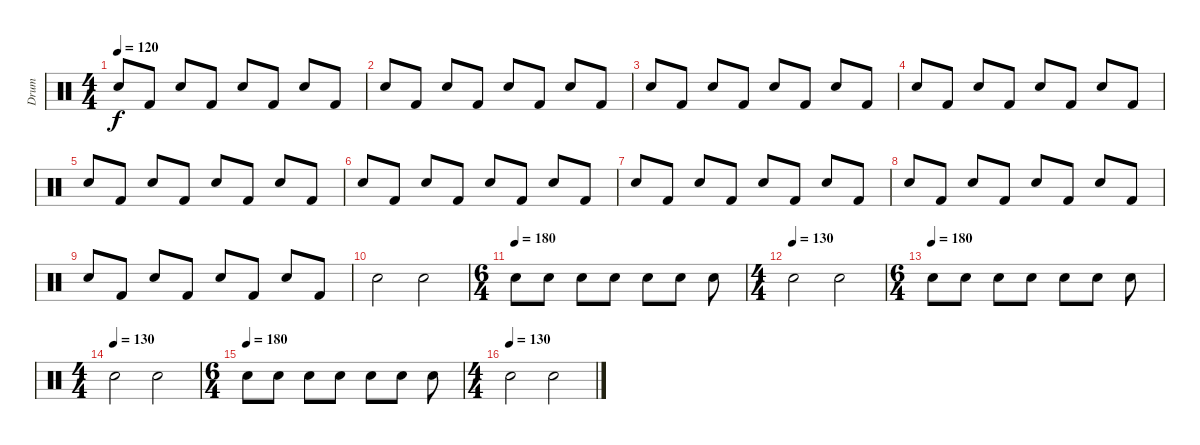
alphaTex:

\track ("Drum" "Drum") {instrument percussion}
\staff {score}
\articulation defaults
\ts (4 4)
\tempo 120
\clef neutral
\ks c "Snare (hit) 2".8{dy f} "Kick (hit) 2".8 "Snare (hit) 2".8 "Kick (hit) 2".8 "Snare (hit) 2".8 "Kick (hit) 2".8 "Snare (hit) 2".8 "Kick (hit) 2".8
|
"Snare (hit) 2".8 "Kick (hit) 2".8 "Snare (hit) 2".8 "Kick (hit) 2".8 "Snare (hit) 2".8 "Kick (hit) 2".8 "Snare (hit) 2".8 "Kick (hit) 2".8 |
"Snare (hit) 2".8 "Kick (hit) 2".8 "Snare (hit) 2".8 "Kick (hit) 2".8 "Snare (hit) 2".8 "Kick (hit) 2".8 "Snare (hit) 2".8 "Kick (hit) 2".8 |
"Snare (hit) 2".8 "Kick (hit) 2".8 "Snare (hit) 2".8 "Kick (hit) 2".8 "Snare (hit) 2".8 "Kick (hit) 2".8 "Snare (hit) 2".8 "Kick (hit) 2".8 |
"Snare (hit) 2".8 "Kick (hit) 2".8 "Snare (hit) 2".8 "Kick (hit) 2".8 "Snare (hit) 2".8 "Kick (hit) 2".8 "Snare (hit) 2".8 "Kick (hit) 2".8 |
"Snare (hit) 2".8 "Kick (hit) 2".8 "Snare (hit) 2".8 "Kick (hit) 2".8 "Snare (hit) 2".8 "Kick (hit) 2".8 "Snare (hit) 2".8 "Kick (hit) 2".8 |
"Snare (hit) 2".8 "Kick (hit) 2".8 "Snare (hit) 2".8 "Kick (hit) 2".8 "Snare (hit) 2".8 "Kick (hit) 2".8 "Snare (hit) 2".8 "Kick (hit) 2".8 |
"Snare (hit) 2".8 "Kick (hit) 2".8 "Snare (hit) 2".8 "Kick (hit) 2".8 "Snare (hit) 2".8 "Kick (hit) 2".8 "Snare (hit) 2".8 "Kick (hit) 2".8 |
"Snare (hit) 2".8 "Kick (hit) 2".8 "Snare (hit) 2".8 "Kick (hit) 2".8 "Snare (hit) 2".8 "Kick (hit) 2".8 "Snare (hit) 2".8 "Kick (hit) 2".8 |
"Snare (hit) 2".2 "Snare (hit) 2".2 |
\ts (6 4)
\tempo (180)
"Snare (hit) 2".8 "Snare (hit) 2".8 "Snare (hit) 2".8 "Snare (hit) 2".8 "Snare (hit) 2".8 "Snare (hit) 2".8 "Snare (hit) 2".8 |
\ts (4 4)
\tempo (130)
"Snare (hit) 2".2 "Snare (hit) 2".2 |
\ts (6 4)
\tempo (180)
"Snare (hit) 2".8 "Snare (hit) 2".8 "Snare (hit) 2".8 "Snare (hit) 2".8 "Snare (hit) 2".8 "Snare (hit) 2".8 "Snare (hit) 2".8 |
\ts (4 4)
\tempo (130)
"Snare (hit) 2".2 "Snare (hit) 2".2 |
\ts (6 4)
\tempo (180)
"Snare (hit) 2".8 "Snare (hit) 2".8 "Snare (hit) 2".8 "Snare (hit) 2".8 "Snare (hit) 2".8 "Snare (hit) 2".8 "Snare (hit) 2".8 |
\ts (4 4)
\tempo (130)
"Snare (hit) 2".2 "Snare (hit) 2".2
